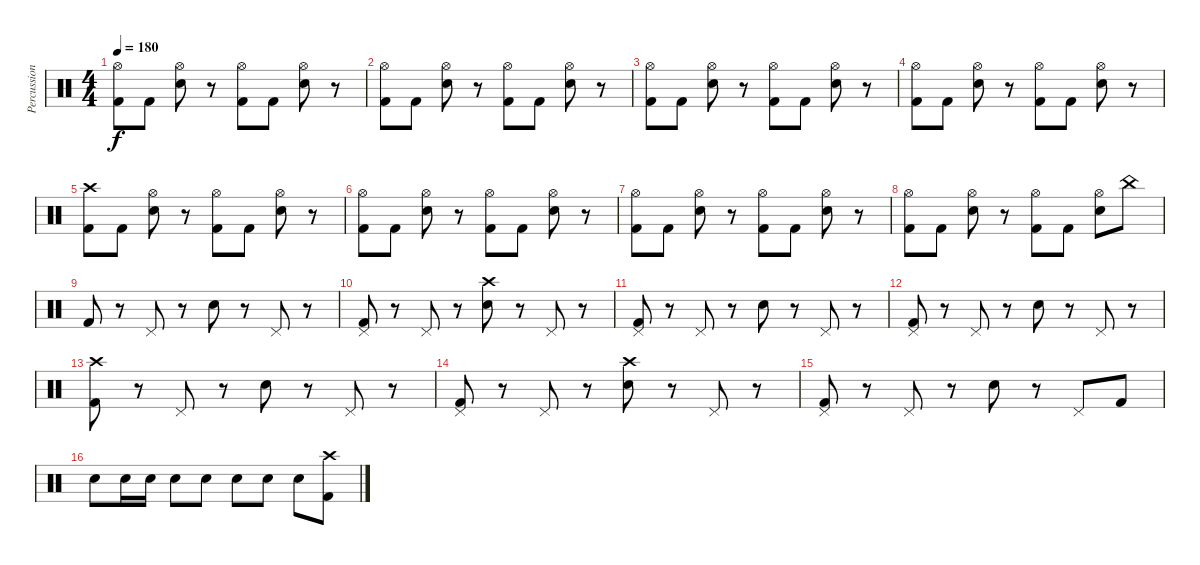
\track ("Percussion" "Percussion") {instrument percussion}
\staff {score}
\articulation defaults
\ts (4 4)
\tempo 180
\clef neutral
\ks c
("Hi-Hat (open)" "Kick (hit) 2").8{dy f} "Kick (hit) 2".8 ("Hi-Hat (open)" "Snare (hit) 2").8 r.8 ("Hi-Hat (open)" "Kick (hit) 2").8 "Kick (hit) 2".8 ("Hi-Hat (open)" "Snare (hit) 2").8 r.8 |
("Hi-Hat (open)" "Kick (hit) 2").8 "Kick (hit) 2".8 ("Hi-Hat (open)" "Snare (hit) 2").8 r.8 ("Hi-Hat (open)" "Kick (hit) 2").8 "Kick (hit) 2".8 ("Hi-Hat (open)" "Snare (hit) 2").8 r.8 |
("Hi-Hat (open)" "Kick (hit) 2").8 "Kick (hit) 2".8 ("Hi-Hat (open)" "Snare (hit) 2").8 r.8 ("Hi-Hat (open)" "Kick (hit) 2").8 "Kick (hit) 2".8 ("Hi-Hat (open)" "Snare (hit) 2").8 r.8 |
("Hi-Hat (open)" "Kick (hit) 2").8 "Kick (hit) 2".8 ("Hi-Hat (open)" "Snare (hit) 2").8 r.8 ("Hi-Hat (open)" "Kick (hit) 2").8 "Kick (hit) 2".8 ("Hi-Hat (open)" "Snare (hit) 2").8 r.8 |
("Crash high (hit)" "Kick (hit) 2").8 "Kick (hit) 2".8 ("Hi-Hat (open)" "Snare (hit) 2").8 r.8 ("Hi-Hat (open)" "Kick (hit) 2").8 "Kick (hit) 2".8 ("Hi-Hat (open)" "Snare (hit) 2").8 r.8 |
("Hi-Hat (open)" "Kick (hit) 2").8 "Kick (hit) 2".8 ("Hi-Hat (open)" "Snare (hit) 2").8 r.8 ("Hi-Hat (open)" "Kick (hit) 2").8 "Kick (hit) 2".8 ("Hi-Hat (open)" "Snare (hit) 2").8 r.8 |
("Hi-Hat (open)" "Kick (hit) 2").8 "Kick (hit) 2".8 ("Hi-Hat (open)" "Snare (hit) 2").8 r.8 ("Hi-Hat (open)" "Kick (hit) 2").8 "Kick (hit) 2".8 ("Hi-Hat (open)" "Snare (hit) 2").8 r.8 |
("Hi-Hat (open)" "Kick (hit) 2").8 "Kick (hit) 2".8 ("Hi-Hat (open)" "Snare (hit) 2").8 r.8 ("Hi-Hat (open)" "Kick (hit) 2").8 "Kick (hit) 2".8 ("Hi-Hat (open)" "Snare (hit) 2").8 "China (hit)".8 |
"Kick (hit) 2".8 r.8 "Pedal Hi-Hat (hit)".8 r.8 "Snare (hit) 2".8 r.8 "Pedal Hi-Hat (hit)".8 r.8 |
("Pedal Hi-Hat (hit)" "Kick (hit) 2").8 r.8 "Pedal Hi-Hat (hit)".8 r.8 ("Crash high (hit)" "Snare (hit) 2").8 r.8 "Pedal Hi-Hat (hit)".8 r.8 |
("Pedal Hi-Hat (hit)" "Kick (hit) 2").8 r.8 "Pedal Hi-Hat (hit)".8 r.8 "Snare (hit) 2".8 r.8 "Pedal Hi-Hat (hit)".8 r.8 |
("Pedal Hi-Hat (hit)" "Kick (hit) 2").8 r.8 "Pedal Hi-Hat (hit)".8 r.8 "Snare (hit) 2".8 r.8 "Pedal Hi-Hat (hit)".8 r.8 |
("Crash high (hit)" "Kick (hit) 2").8 r.8 "Pedal Hi-Hat (hit)".8 r.8 "Snare (hit) 2".8 r.8 "Pedal Hi-Hat (hit)".8 r.8 |
("Pedal Hi-Hat (hit)" "Kick (hit) 2").8 r.8 "Pedal Hi-Hat (hit)".8 r.8 ("Crash high (hit)" "Snare (hit) 2").8 r.8 "Pedal Hi-Hat (hit)".8 r.8 |
("Pedal Hi-Hat (hit)" "Kick (hit) 2").8 r.8 "Pedal Hi-Hat (hit)".8 r.8 "Snare (hit) 2".8 r.8 "Pedal Hi-Hat (hit)".8 "Kick (hit) 2".8 |
"Snare (hit) 2".8 "Snare (hit) 2".16 "Snare (hit) 2".16 "Snare (hit) 2".8 "Snare (hit) 2".8 "Snare (hit) 2".8 "Snare (hit) 2".8 "Snare (hit) 2".8 ("Crash high (hit)" "Kick (hit) 2").8
